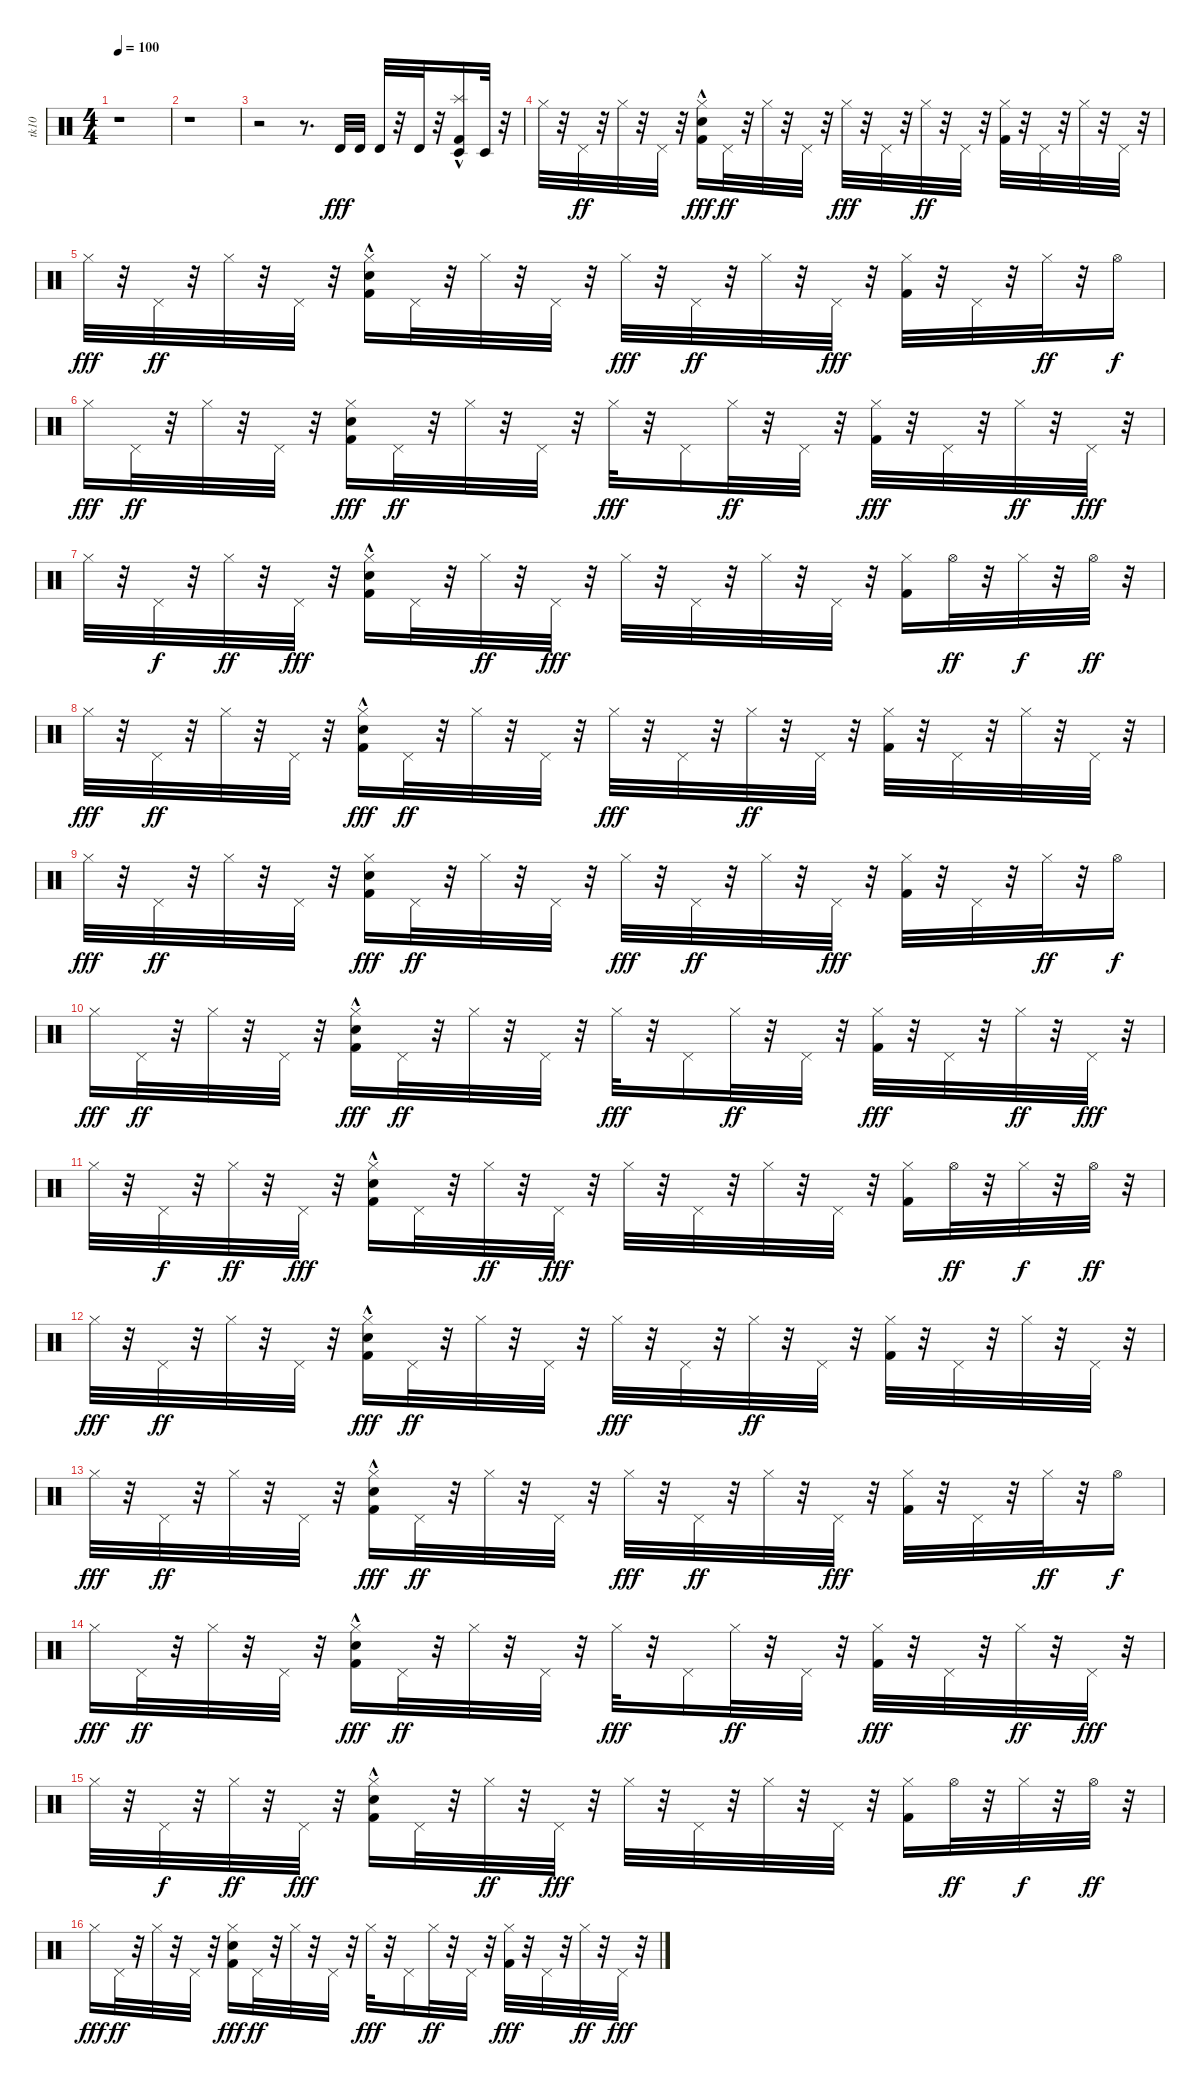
\track ("tk10" "tk10") {instrument percussion}
\staff {score}
\articulation defaults
\ts (4 4)
\tempo 100
\clef neutral
\ks c
r.1{dy fff} |
r.1 |
r.2 r.8{d} "Timbale high (hit)".32{balance 8} "Timbale high (hit)".32 "Timbale high (hit)".32 r.32 "Timbale high (hit)".32 r.32 ("Timbale low (hit)" "Splash (hit)" "Kick (hit) 2"{hac}).16 "Timbale low (hit)".32 r.32 |
"Hi-Hat (closed)".32 r.32 "Pedal Hi-Hat (hit)".32{dy ff} r.32 "Hi-Hat (closed)".32 r.32 "Pedal Hi-Hat (hit)".32 r.32 ("Kick (hit) 2"{hac} "Hi-Hat (closed)" "Snare (hit) 2"{hac}).16{dy fff} "Pedal Hi-Hat (hit)".32{dy ff} r.32 "Hi-Hat (closed)".32 r.32 "Pedal Hi-Hat (hit)".32 r.32 "Hi-Hat (closed)".32{dy fff} r.32 "Pedal Hi-Hat (hit)".32 r.32 "Hi-Hat (closed)".32{dy ff} r.32 "Pedal Hi-Hat (hit)".32 r.32 ("Kick (hit) 2" "Hi-Hat (closed)").32 r.32 "Pedal Hi-Hat (hit)".32 r.32 "Hi-Hat (closed)".32 r.32 "Pedal Hi-Hat (hit)".32 r.32 |
"Hi-Hat (closed)".32{dy fff} r.32 "Pedal Hi-Hat (hit)".32{dy ff} r.32 "Hi-Hat (closed)".32 r.32 "Pedal Hi-Hat (hit)".32 r.32 ("Snare (hit) 2"{hac} "Kick (hit) 2" "Hi-Hat (closed)").16 "Pedal Hi-Hat (hit)".32 r.32 "Hi-Hat (closed)".32 r.32 "Pedal Hi-Hat (hit)".32 r.32 "Hi-Hat (closed)".32{dy fff} r.32 "Pedal Hi-Hat (hit)".32{dy ff} r.32 "Hi-Hat (closed)".32 r.32 "Pedal Hi-Hat (hit)".32{dy fff} r.32 ("Kick (hit) 2" "Hi-Hat (closed)").32 r.32 "Pedal Hi-Hat (hit)".32 r.32 "Hi-Hat (closed)".32{dy ff} r.32 "Hi-Hat (open)".16{dy f} |
"Hi-Hat (closed)".16{dy fff} "Pedal Hi-Hat (hit)".32{dy ff} r.32 "Hi-Hat (closed)".32 r.32 "Pedal Hi-Hat (hit)".32 r.32 ("Snare (hit) 2" "Kick (hit) 2" "Hi-Hat (closed)").16{dy fff} "Pedal Hi-Hat (hit)".32{dy ff} r.32 "Hi-Hat (closed)".32 r.32 "Pedal Hi-Hat (hit)".32 r.32 "Hi-Hat (closed)".32{dy fff} r.32 "Pedal Hi-Hat (hit)".16 "Hi-Hat (closed)".32{dy ff} r.32 "Pedal Hi-Hat (hit)".32 r.32 ("Hi-Hat (closed)" "Kick (hit) 2").32{dy fff} r.32 "Pedal Hi-Hat (hit)".32 r.32 "Hi-Hat (closed)".32{dy ff} r.32 "Pedal Hi-Hat (hit)".32{dy fff} r.32 |
"Hi-Hat (closed)".32 r.32 "Pedal Hi-Hat (hit)".32{dy f} r.32 "Hi-Hat (closed)".32{dy ff} r.32 "Pedal Hi-Hat (hit)".32{dy fff} r.32 ("Kick (hit) 2" "Hi-Hat (closed)" "Snare (hit) 2"{hac}).16 "Pedal Hi-Hat (hit)".32 r.32 "Hi-Hat (closed)".32{dy ff} r.32 "Pedal Hi-Hat (hit)".32{dy fff} r.32 "Hi-Hat (closed)".32 r.32 "Pedal Hi-Hat (hit)".32 r.32 "Hi-Hat (closed)".32 r.32 "Pedal Hi-Hat (hit)".32 r.32 ("Hi-Hat (closed)" "Kick (hit) 2").16 "Hi-Hat (open)".32{dy ff} r.32 "Hi-Hat (closed)".32{dy f} r.32 "Hi-Hat (open)".32{dy ff} r.32 |
"Hi-Hat (closed)".32{dy fff} r.32 "Pedal Hi-Hat (hit)".32{dy ff} r.32 "Hi-Hat (closed)".32 r.32 "Pedal Hi-Hat (hit)".32 r.32 ("Kick (hit) 2"{hac} "Hi-Hat (closed)" "Snare (hit) 2"{hac}).16{dy fff} "Pedal Hi-Hat (hit)".32{dy ff} r.32 "Hi-Hat (closed)".32 r.32 "Pedal Hi-Hat (hit)".32 r.32 "Hi-Hat (closed)".32{dy fff} r.32 "Pedal Hi-Hat (hit)".32 r.32 "Hi-Hat (closed)".32{dy ff} r.32 "Pedal Hi-Hat (hit)".32 r.32 ("Kick (hit) 2" "Hi-Hat (closed)").32 r.32 "Pedal Hi-Hat (hit)".32 r.32 "Hi-Hat (closed)".32 r.32 "Pedal Hi-Hat (hit)".32 r.32 |
"Hi-Hat (closed)".32{dy fff} r.32 "Pedal Hi-Hat (hit)".32{dy ff} r.32 "Hi-Hat (closed)".32 r.32 "Pedal Hi-Hat (hit)".32 r.32 ("Kick (hit) 2" "Hi-Hat (closed)" "Snare (hit) 2").16{dy fff} "Pedal Hi-Hat (hit)".32{dy ff} r.32 "Hi-Hat (closed)".32 r.32 "Pedal Hi-Hat (hit)".32 r.32 "Hi-Hat (closed)".32{dy fff} r.32 "Pedal Hi-Hat (hit)".32{dy ff} r.32 "Hi-Hat (closed)".32 r.32 "Pedal Hi-Hat (hit)".32{dy fff} r.32 ("Kick (hit) 2" "Hi-Hat (closed)").32 r.32 "Pedal Hi-Hat (hit)".32 r.32 "Hi-Hat (closed)".32{dy ff} r.32 "Hi-Hat (open)".16{dy f} |
"Hi-Hat (closed)".16{dy fff} "Pedal Hi-Hat (hit)".32{dy ff} r.32 "Hi-Hat (closed)".32 r.32 "Pedal Hi-Hat (hit)".32 r.32 ("Kick (hit) 2" "Hi-Hat (closed)" "Snare (hit) 2"{hac}).16{dy fff} "Pedal Hi-Hat (hit)".32{dy ff} r.32 "Hi-Hat (closed)".32 r.32 "Pedal Hi-Hat (hit)".32 r.32 "Hi-Hat (closed)".32{dy fff} r.32 "Pedal Hi-Hat (hit)".16 "Hi-Hat (closed)".32{dy ff} r.32 "Pedal Hi-Hat (hit)".32 r.32 ("Hi-Hat (closed)" "Kick (hit) 2").32{dy fff} r.32 "Pedal Hi-Hat (hit)".32 r.32 "Hi-Hat (closed)".32{dy ff} r.32 "Pedal Hi-Hat (hit)".32{dy fff} r.32 |
"Hi-Hat (closed)".32 r.32 "Pedal Hi-Hat (hit)".32{dy f} r.32 "Hi-Hat (closed)".32{dy ff} r.32 "Pedal Hi-Hat (hit)".32{dy fff} r.32 ("Kick (hit) 2" "Hi-Hat (closed)" "Snare (hit) 2"{hac}).16 "Pedal Hi-Hat (hit)".32 r.32 "Hi-Hat (closed)".32{dy ff} r.32 "Pedal Hi-Hat (hit)".32{dy fff} r.32 "Hi-Hat (closed)".32 r.32 "Pedal Hi-Hat (hit)".32 r.32 "Hi-Hat (closed)".32 r.32 "Pedal Hi-Hat (hit)".32 r.32 ("Hi-Hat (closed)" "Kick (hit) 2").16 "Hi-Hat (open)".32{dy ff} r.32 "Hi-Hat (closed)".32{dy f} r.32 "Hi-Hat (open)".32{dy ff} r.32 |
"Hi-Hat (closed)".32{dy fff} r.32 "Pedal Hi-Hat (hit)".32{dy ff} r.32 "Hi-Hat (closed)".32 r.32 "Pedal Hi-Hat (hit)".32 r.32 ("Snare (hit) 2"{hac} "Kick (hit) 2"{hac} "Hi-Hat (closed)").16{dy fff} "Pedal Hi-Hat (hit)".32{dy ff} r.32 "Hi-Hat (closed)".32 r.32 "Pedal Hi-Hat (hit)".32 r.32 "Hi-Hat (closed)".32{dy fff} r.32 "Pedal Hi-Hat (hit)".32 r.32 "Hi-Hat (closed)".32{dy ff} r.32 "Pedal Hi-Hat (hit)".32 r.32 ("Kick (hit) 2" "Hi-Hat (closed)").32 r.32 "Pedal Hi-Hat (hit)".32 r.32 "Hi-Hat (closed)".32 r.32 "Pedal Hi-Hat (hit)".32 r.32 |
"Hi-Hat (closed)".32{dy fff} r.32 "Pedal Hi-Hat (hit)".32{dy ff} r.32 "Hi-Hat (closed)".32 r.32 "Pedal Hi-Hat (hit)".32 r.32 ("Kick (hit) 2" "Hi-Hat (closed)" "Snare (hit) 2"{hac}).16{dy fff} "Pedal Hi-Hat (hit)".32{dy ff} r.32 "Hi-Hat (closed)".32 r.32 "Pedal Hi-Hat (hit)".32 r.32 "Hi-Hat (closed)".32{dy fff} r.32 "Pedal Hi-Hat (hit)".32{dy ff} r.32 "Hi-Hat (closed)".32 r.32 "Pedal Hi-Hat (hit)".32{dy fff} r.32 ("Kick (hit) 2" "Hi-Hat (closed)").32 r.32 "Pedal Hi-Hat (hit)".32 r.32 "Hi-Hat (closed)".32{dy ff} r.32 "Hi-Hat (open)".16{dy f} |
"Hi-Hat (closed)".16{dy fff} "Pedal Hi-Hat (hit)".32{dy ff} r.32 "Hi-Hat (closed)".32 r.32 "Pedal Hi-Hat (hit)".32 r.32 ("Kick (hit) 2" "Hi-Hat (closed)" "Snare (hit) 2"{hac}).16{dy fff} "Pedal Hi-Hat (hit)".32{dy ff} r.32 "Hi-Hat (closed)".32 r.32 "Pedal Hi-Hat (hit)".32 r.32 "Hi-Hat (closed)".32{dy fff} r.32 "Pedal Hi-Hat (hit)".16 "Hi-Hat (closed)".32{dy ff} r.32 "Pedal Hi-Hat (hit)".32 r.32 ("Hi-Hat (closed)" "Kick (hit) 2").32{dy fff} r.32 "Pedal Hi-Hat (hit)".32 r.32 "Hi-Hat (closed)".32{dy ff} r.32 "Pedal Hi-Hat (hit)".32{dy fff} r.32 |
"Hi-Hat (closed)".32 r.32 "Pedal Hi-Hat (hit)".32{dy f} r.32 "Hi-Hat (closed)".32{dy ff} r.32 "Pedal Hi-Hat (hit)".32{dy fff} r.32 ("Kick (hit) 2" "Hi-Hat (closed)" "Snare (hit) 2"{hac}).16 "Pedal Hi-Hat (hit)".32 r.32 "Hi-Hat (closed)".32{dy ff} r.32 "Pedal Hi-Hat (hit)".32{dy fff} r.32 "Hi-Hat (closed)".32 r.32 "Pedal Hi-Hat (hit)".32 r.32 "Hi-Hat (closed)".32 r.32 "Pedal Hi-Hat (hit)".32 r.32 ("Hi-Hat (closed)" "Kick (hit) 2").16 "Hi-Hat (open)".32{dy ff} r.32 "Hi-Hat (closed)".32{dy f} r.32 "Hi-Hat (open)".32{dy ff} r.32 |
"Hi-Hat (closed)".16{dy fff} "Pedal Hi-Hat (hit)".32{dy ff} r.32 "Hi-Hat (closed)".32 r.32 "Pedal Hi-Hat (hit)".32 r.32 ("Kick (hit) 2" "Hi-Hat (closed)" "Snare (hit) 2").16{dy fff} "Pedal Hi-Hat (hit)".32{dy ff} r.32 "Hi-Hat (closed)".32 r.32 "Pedal Hi-Hat (hit)".32 r.32 "Hi-Hat (closed)".32{dy fff} r.32 "Pedal Hi-Hat (hit)".16 "Hi-Hat (closed)".32{dy ff} r.32 "Pedal Hi-Hat (hit)".32 r.32 ("Hi-Hat (closed)" "Kick (hit) 2").32{dy fff} r.32 "Pedal Hi-Hat (hit)".32 r.32 "Hi-Hat (closed)".32{dy ff} r.32 "Pedal Hi-Hat (hit)".32{dy fff} r.32
